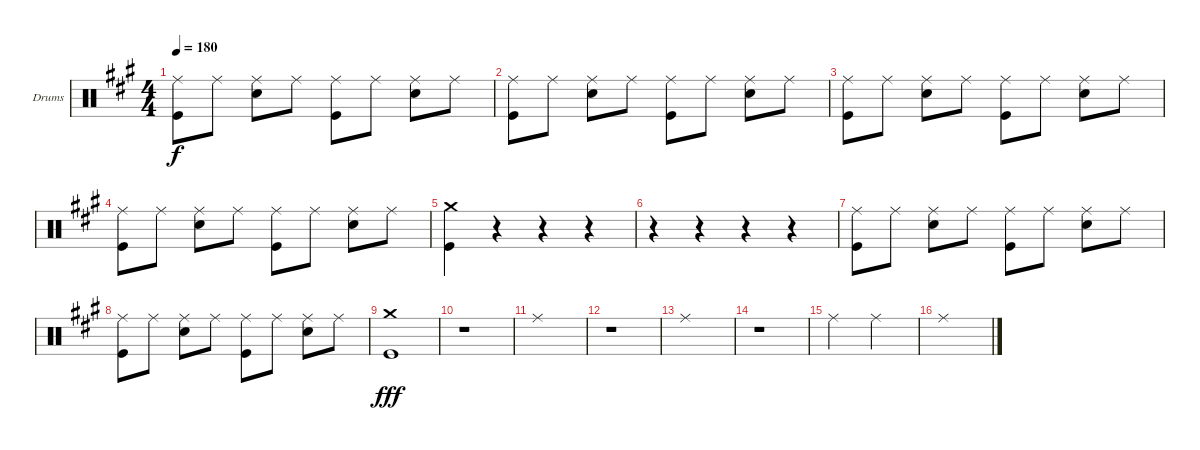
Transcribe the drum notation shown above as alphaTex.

\bracketExtendMode groupsimilarinstruments
\firstSystemTrackNameOrientation horizontal
\otherSystemsTrackNameOrientation horizontal
\track ("Drumkit" "Drums") {instrument percussion}
\staff {score}
\articulation defaults
\ts (4 4)
\tempo 180
\clef neutral
\ks a
("Ride (middle)" "Kick (hit)").8{dy f} "Ride (middle)".8 ("Ride (middle)" "Snare (hit) 2").8 "Ride (middle)".8 ("Ride (middle)" "Kick (hit)").8 "Ride (middle)".8 ("Ride (middle)" "Snare (hit) 2").8 "Ride (middle)".8 |
("Ride (middle)" "Kick (hit)").8 "Ride (middle)".8 ("Ride (middle)" "Snare (hit) 2").8 "Ride (middle)".8 ("Ride (middle)" "Kick (hit)").8 "Ride (middle)".8 ("Ride (middle)" "Snare (hit) 2").8 "Ride (middle)".8 |
("Ride (middle)" "Kick (hit)").8 "Ride (middle)".8 ("Ride (middle)" "Snare (hit) 2").8 "Ride (middle)".8 ("Ride (middle)" "Kick (hit)").8 "Ride (middle)".8 ("Ride (middle)" "Snare (hit) 2").8 "Ride (middle)".8 |
("Ride (middle)" "Kick (hit)").8 "Ride (middle)".8 ("Ride (middle)" "Snare (hit) 2").8 "Ride (middle)".8 ("Ride (middle)" "Kick (hit)").8 "Ride (middle)".8 ("Ride (middle)" "Snare (hit) 2").8 "Ride (middle)".8 |
("Crash medium (hit)" "Kick (hit)").4 r.4 r.4 r.4 |
r.4 r.4 r.4 r.4 |
("Ride (middle)" "Kick (hit)").8 "Ride (middle)".8 ("Ride (middle)" "Snare (hit) 2").8 "Ride (middle)".8 ("Ride (middle)" "Kick (hit)").8 "Ride (middle)".8 ("Ride (middle)" "Snare (hit) 2").8 "Ride (middle)".8 |
("Ride (middle)" "Kick (hit)").8 "Ride (middle)".8 ("Ride (middle)" "Snare (hit) 2").8 "Ride (middle)".8 ("Ride (middle)" "Kick (hit)").8 "Ride (middle)".8 ("Ride (middle)" "Snare (hit) 2").8 "Ride (middle)".8 |
("Crash medium (hit)" "Kick (hit)").1{dy fff} |
r.1 |
"Ride (middle)".1 |
r.1 |
"Ride (middle)".1 |
r.1 |
"Ride (middle)".2 "Ride (middle)".2 |
"Ride (middle)".1
